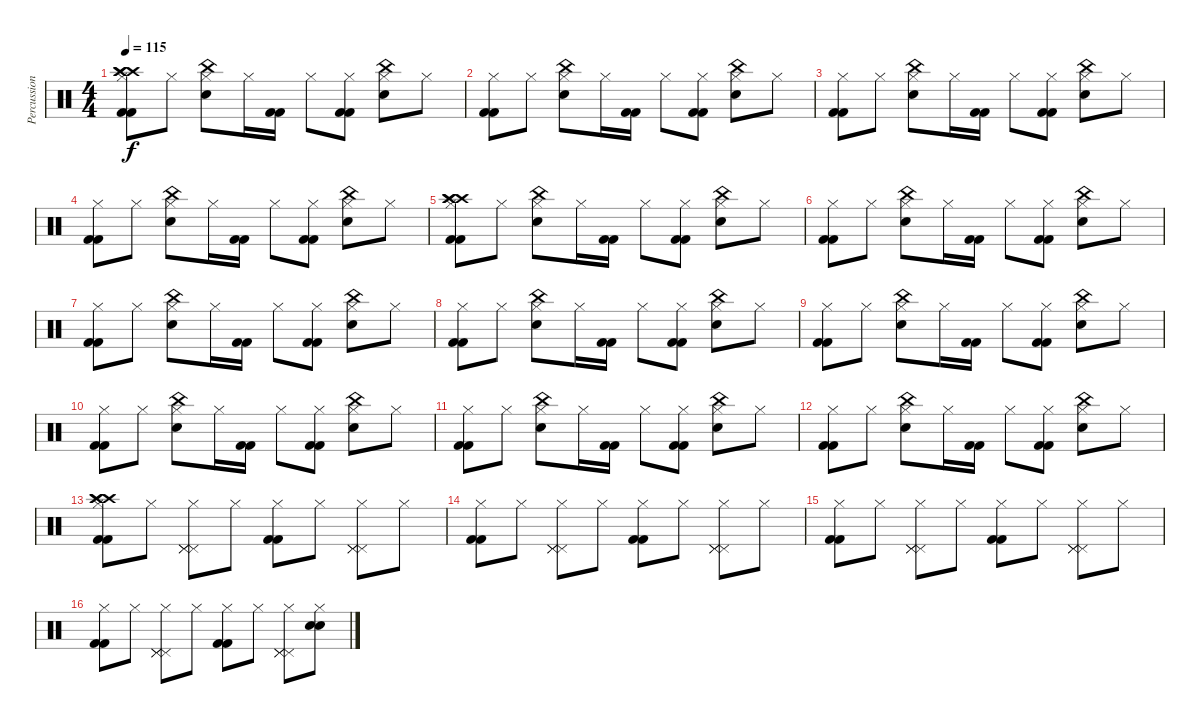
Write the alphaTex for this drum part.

\track ("Percussion" "Percussion") {instrument percussion}
\staff {score}
\articulation defaults
\ts (4 4)
\tempo 115
\clef neutral
\ks c
("Hi-Hat (closed)" "Kick (hit) 2" "Kick (hit) 2" "Crash high (hit)" "Crash high (hit)" "Crash high (hit)").8{dy f} "Hi-Hat (closed)".8 ("Hi-Hat (closed)" "Electric Snare (hit)" "China (hit)").8 "Hi-Hat (closed)".16 ("Kick (hit) 2" "Kick (hit) 2").16 "Hi-Hat (closed)".8 ("Hi-Hat (closed)" "Kick (hit) 2" "Kick (hit) 2").8 ("Hi-Hat (closed)" "Electric Snare (hit)" "China (hit)").8 "Hi-Hat (closed)".8 |
("Hi-Hat (closed)" "Kick (hit) 2" "Kick (hit) 2").8 "Hi-Hat (closed)".8 ("Hi-Hat (closed)" "Electric Snare (hit)" "China (hit)").8 "Hi-Hat (closed)".16 ("Kick (hit) 2" "Kick (hit) 2").16 "Hi-Hat (closed)".8 ("Hi-Hat (closed)" "Kick (hit) 2" "Kick (hit) 2").8 ("Hi-Hat (closed)" "Electric Snare (hit)" "China (hit)").8 "Hi-Hat (closed)".8 |
("Hi-Hat (closed)" "Kick (hit) 2" "Kick (hit) 2").8 "Hi-Hat (closed)".8 ("Hi-Hat (closed)" "Electric Snare (hit)" "China (hit)").8 "Hi-Hat (closed)".16 ("Kick (hit) 2" "Kick (hit) 2").16 "Hi-Hat (closed)".8 ("Hi-Hat (closed)" "Kick (hit) 2" "Kick (hit) 2").8 ("Hi-Hat (closed)" "Electric Snare (hit)" "China (hit)").8 "Hi-Hat (closed)".8 |
("Hi-Hat (closed)" "Kick (hit) 2" "Kick (hit) 2").8 "Hi-Hat (closed)".8 ("Hi-Hat (closed)" "Electric Snare (hit)" "China (hit)").8 "Hi-Hat (closed)".16 ("Kick (hit) 2" "Kick (hit) 2").16 "Hi-Hat (closed)".8 ("Hi-Hat (closed)" "Kick (hit) 2" "Kick (hit) 2").8 ("Hi-Hat (closed)" "Electric Snare (hit)" "China (hit)").8 "Hi-Hat (closed)".8 |
("Hi-Hat (closed)" "Kick (hit) 2" "Kick (hit) 2" "Crash high (hit)" "Crash high (hit)" "Crash high (hit)").8 "Hi-Hat (closed)".8 ("Hi-Hat (closed)" "Electric Snare (hit)" "China (hit)").8 "Hi-Hat (closed)".16 ("Kick (hit) 2" "Kick (hit) 2").16 "Hi-Hat (closed)".8 ("Hi-Hat (closed)" "Kick (hit) 2" "Kick (hit) 2").8 ("Hi-Hat (closed)" "Electric Snare (hit)" "China (hit)").8 "Hi-Hat (closed)".8 |
("Hi-Hat (closed)" "Kick (hit) 2" "Kick (hit) 2").8 "Hi-Hat (closed)".8 ("Hi-Hat (closed)" "Electric Snare (hit)" "China (hit)").8 "Hi-Hat (closed)".16 ("Kick (hit) 2" "Kick (hit) 2").16 "Hi-Hat (closed)".8 ("Hi-Hat (closed)" "Kick (hit) 2" "Kick (hit) 2").8 ("Hi-Hat (closed)" "Electric Snare (hit)" "China (hit)").8 "Hi-Hat (closed)".8 |
("Hi-Hat (closed)" "Kick (hit) 2" "Kick (hit) 2").8 "Hi-Hat (closed)".8 ("Hi-Hat (closed)" "Electric Snare (hit)" "China (hit)").8 "Hi-Hat (closed)".16 ("Kick (hit) 2" "Kick (hit) 2").16 "Hi-Hat (closed)".8 ("Hi-Hat (closed)" "Kick (hit) 2" "Kick (hit) 2").8 ("Hi-Hat (closed)" "Electric Snare (hit)" "China (hit)").8 "Hi-Hat (closed)".8 |
("Hi-Hat (closed)" "Kick (hit) 2" "Kick (hit) 2").8 "Hi-Hat (closed)".8 ("Hi-Hat (closed)" "Electric Snare (hit)" "China (hit)").8 "Hi-Hat (closed)".16 ("Kick (hit) 2" "Kick (hit) 2").16 "Hi-Hat (closed)".8 ("Hi-Hat (closed)" "Kick (hit) 2" "Kick (hit) 2").8 ("Hi-Hat (closed)" "Electric Snare (hit)" "China (hit)").8 "Hi-Hat (closed)".8 |
("Hi-Hat (closed)" "Kick (hit) 2" "Kick (hit) 2").8 "Hi-Hat (closed)".8 ("Hi-Hat (closed)" "Electric Snare (hit)" "China (hit)").8 "Hi-Hat (closed)".16 ("Kick (hit) 2" "Kick (hit) 2").16 "Hi-Hat (closed)".8 ("Hi-Hat (closed)" "Kick (hit) 2" "Kick (hit) 2").8 ("Hi-Hat (closed)" "Electric Snare (hit)" "China (hit)").8 "Hi-Hat (closed)".8 |
("Hi-Hat (closed)" "Kick (hit) 2" "Kick (hit) 2").8 "Hi-Hat (closed)".8 ("Hi-Hat (closed)" "Electric Snare (hit)" "China (hit)").8 "Hi-Hat (closed)".16 ("Kick (hit) 2" "Kick (hit) 2").16 "Hi-Hat (closed)".8 ("Hi-Hat (closed)" "Kick (hit) 2" "Kick (hit) 2").8 ("Hi-Hat (closed)" "Electric Snare (hit)" "China (hit)").8 "Hi-Hat (closed)".8 |
("Hi-Hat (closed)" "Kick (hit) 2" "Kick (hit) 2").8 "Hi-Hat (closed)".8 ("Hi-Hat (closed)" "Electric Snare (hit)" "China (hit)").8 "Hi-Hat (closed)".16 ("Kick (hit) 2" "Kick (hit) 2").16 "Hi-Hat (closed)".8 ("Hi-Hat (closed)" "Kick (hit) 2" "Kick (hit) 2").8 ("Hi-Hat (closed)" "Electric Snare (hit)" "China (hit)").8 "Hi-Hat (closed)".8 |
("Hi-Hat (closed)" "Kick (hit) 2" "Kick (hit) 2").8 "Hi-Hat (closed)".8 ("Hi-Hat (closed)" "Electric Snare (hit)" "China (hit)").8 "Hi-Hat (closed)".16 ("Kick (hit) 2" "Kick (hit) 2").16 "Hi-Hat (closed)".8 ("Hi-Hat (closed)" "Kick (hit) 2" "Kick (hit) 2").8 ("Hi-Hat (closed)" "Electric Snare (hit)" "China (hit)").8 "Hi-Hat (closed)".8 |
("Hi-Hat (closed)" "Kick (hit) 2" "Kick (hit) 2" "Crash high (hit)" "Crash high (hit)" "Crash high (hit)").8 "Hi-Hat (closed)".8 ("Hi-Hat (closed)" "Pedal Hi-Hat (hit)" "Pedal Hi-Hat (hit)" "Pedal Hi-Hat (hit)").8 "Hi-Hat (closed)".8 ("Hi-Hat (closed)" "Kick (hit) 2" "Kick (hit) 2").8 "Hi-Hat (closed)".8 ("Hi-Hat (closed)" "Pedal Hi-Hat (hit)" "Pedal Hi-Hat (hit)" "Pedal Hi-Hat (hit)").8 "Hi-Hat (closed)".8 |
("Hi-Hat (closed)" "Kick (hit) 2" "Kick (hit) 2").8 "Hi-Hat (closed)".8 ("Hi-Hat (closed)" "Pedal Hi-Hat (hit)" "Pedal Hi-Hat (hit)" "Pedal Hi-Hat (hit)").8 "Hi-Hat (closed)".8 ("Hi-Hat (closed)" "Kick (hit) 2" "Kick (hit) 2").8 "Hi-Hat (closed)".8 ("Hi-Hat (closed)" "Pedal Hi-Hat (hit)" "Pedal Hi-Hat (hit)" "Pedal Hi-Hat (hit)").8 "Hi-Hat (closed)".8 |
("Hi-Hat (closed)" "Kick (hit) 2" "Kick (hit) 2").8 "Hi-Hat (closed)".8 ("Hi-Hat (closed)" "Pedal Hi-Hat (hit)" "Pedal Hi-Hat (hit)" "Pedal Hi-Hat (hit)").8 "Hi-Hat (closed)".8 ("Hi-Hat (closed)" "Kick (hit) 2" "Kick (hit) 2").8 "Hi-Hat (closed)".8 ("Hi-Hat (closed)" "Pedal Hi-Hat (hit)" "Pedal Hi-Hat (hit)" "Pedal Hi-Hat (hit)").8 "Hi-Hat (closed)".8 |
("Hi-Hat (closed)" "Kick (hit) 2" "Kick (hit) 2").8 "Hi-Hat (closed)".8 ("Hi-Hat (closed)" "Pedal Hi-Hat (hit)" "Pedal Hi-Hat (hit)" "Pedal Hi-Hat (hit)").8 "Hi-Hat (closed)".8 ("Hi-Hat (closed)" "Kick (hit) 2" "Kick (hit) 2").8 "Hi-Hat (closed)".8 ("Hi-Hat (closed)" "Pedal Hi-Hat (hit)" "Pedal Hi-Hat (hit)" "Pedal Hi-Hat (hit)").8 ("Hi-Hat (closed)" "Electric Snare (hit)" "Electric Snare (hit)").8
